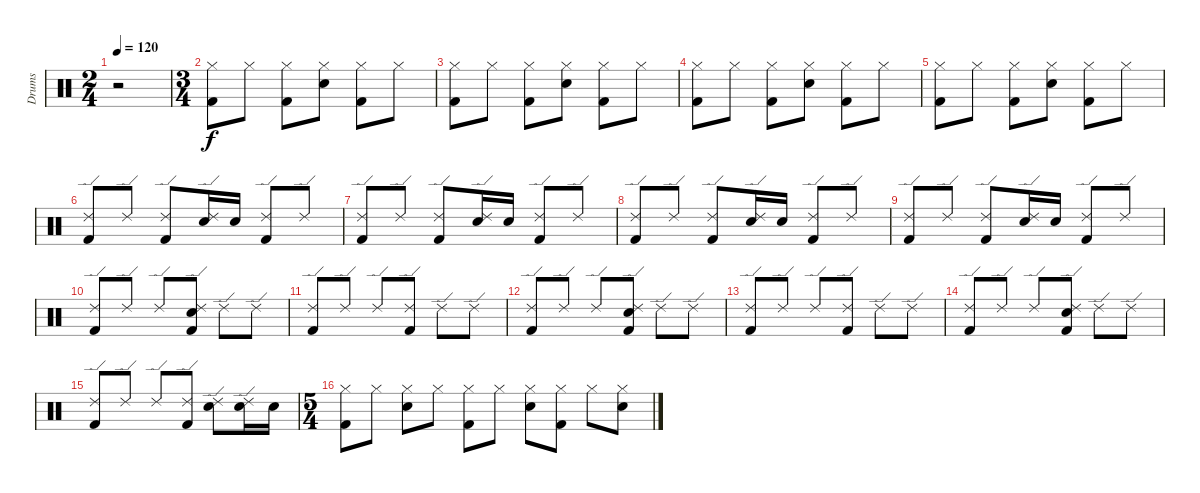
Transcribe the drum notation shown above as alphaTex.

\track ("Drums" "Drums") {instrument percussion}
\staff {score}
\articulation defaults
\ts (2 4)
\tempo 120
\clef neutral
\ks c
r.2{dy f} |
\ts (3 4)
("Hi-Hat (closed)" "Kick (hit) 2").8 "Hi-Hat (closed)".8 ("Hi-Hat (closed)" "Kick (hit) 2").8 ("Hi-Hat (closed)" "Snare (hit) 2").8 ("Hi-Hat (closed)" "Kick (hit) 2").8 "Hi-Hat (closed)".8 |
("Hi-Hat (closed)" "Kick (hit) 2").8 "Hi-Hat (closed)".8 ("Hi-Hat (closed)" "Kick (hit) 2").8 ("Hi-Hat (closed)" "Snare (hit) 2").8 ("Hi-Hat (closed)" "Kick (hit) 2").8 "Hi-Hat (closed)".8 |
("Hi-Hat (closed)" "Kick (hit) 2").8 "Hi-Hat (closed)".8 ("Hi-Hat (closed)" "Kick (hit) 2").8 ("Hi-Hat (closed)" "Snare (hit) 2").8 ("Hi-Hat (closed)" "Kick (hit) 2").8 "Hi-Hat (closed)".8 |
("Hi-Hat (closed)" "Kick (hit) 2").8 "Hi-Hat (closed)".8 ("Hi-Hat (closed)" "Kick (hit) 2").8 ("Hi-Hat (closed)" "Snare (hit) 2").8 ("Hi-Hat (closed)" "Kick (hit) 2").8 "Hi-Hat (closed)".8 |
("Ride (edge) 2" "Kick (hit) 2").8 "Ride (edge) 2".8 ("Ride (edge) 2" "Kick (hit) 2").8 ("Ride (edge) 2" "Snare (hit) 2").16 "Snare (hit) 2".16 ("Ride (edge) 2" "Kick (hit) 2").8 "Ride (edge) 2".8 |
("Ride (edge) 2" "Kick (hit) 2").8 "Ride (edge) 2".8 ("Ride (edge) 2" "Kick (hit) 2").8 ("Ride (edge) 2" "Snare (hit) 2").16 "Snare (hit) 2".16 ("Ride (edge) 2" "Kick (hit) 2").8 "Ride (edge) 2".8 |
("Ride (edge) 2" "Kick (hit) 2").8 "Ride (edge) 2".8 ("Ride (edge) 2" "Kick (hit) 2").8 ("Ride (edge) 2" "Snare (hit) 2").16 "Snare (hit) 2".16 ("Ride (edge) 2" "Kick (hit) 2").8 "Ride (edge) 2".8 |
("Ride (edge) 2" "Kick (hit) 2").8 "Ride (edge) 2".8 ("Ride (edge) 2" "Kick (hit) 2").8 ("Ride (edge) 2" "Snare (hit) 2").16 "Snare (hit) 2".16 ("Ride (edge) 2" "Kick (hit) 2").8 "Ride (edge) 2".8 |
("Ride (edge) 2" "Kick (hit) 2").8 "Ride (edge) 2".8 "Ride (edge) 2".8 ("Ride (edge) 2" "Kick (hit) 2" "Snare (hit) 2").8 "Ride (edge) 2".8 "Ride (edge) 2".8 |
("Ride (edge) 2" "Kick (hit) 2").8 "Ride (edge) 2".8 "Ride (edge) 2".8 ("Ride (edge) 2" "Kick (hit) 2").8 "Ride (edge) 2".8 "Ride (edge) 2".8 |
("Ride (edge) 2" "Kick (hit) 2").8 "Ride (edge) 2".8 "Ride (edge) 2".8 ("Ride (edge) 2" "Kick (hit) 2" "Snare (hit) 2").8 "Ride (edge) 2".8 "Ride (edge) 2".8 |
("Ride (edge) 2" "Kick (hit) 2").8 "Ride (edge) 2".8 "Ride (edge) 2".8 ("Ride (edge) 2" "Kick (hit) 2").8 "Ride (edge) 2".8 "Ride (edge) 2".8 |
("Ride (edge) 2" "Kick (hit) 2").8 "Ride (edge) 2".8 "Ride (edge) 2".8 ("Ride (edge) 2" "Kick (hit) 2" "Snare (hit) 2").8 "Ride (edge) 2".8 "Ride (edge) 2".8 |
("Ride (edge) 2" "Kick (hit) 2").8 "Ride (edge) 2".8 "Ride (edge) 2".8 ("Ride (edge) 2" "Kick (hit) 2").8 ("Ride (edge) 2" "Snare (hit) 2").8 ("Ride (edge) 2" "Snare (hit) 2").16 "Snare (hit) 2".16 |
\ts (5 4)
("Hi-Hat (closed)" "Kick (hit) 2").8 "Hi-Hat (closed)".8 ("Hi-Hat (closed)" "Snare (hit) 2").8 "Hi-Hat (closed)".8 ("Hi-Hat (closed)" "Kick (hit) 2").8 "Hi-Hat (closed)".8 ("Hi-Hat (closed)" "Snare (hit) 2").8 ("Hi-Hat (closed)" "Kick (hit) 2").8 "Hi-Hat (closed)".8 ("Hi-Hat (closed)" "Snare (hit) 2").8
